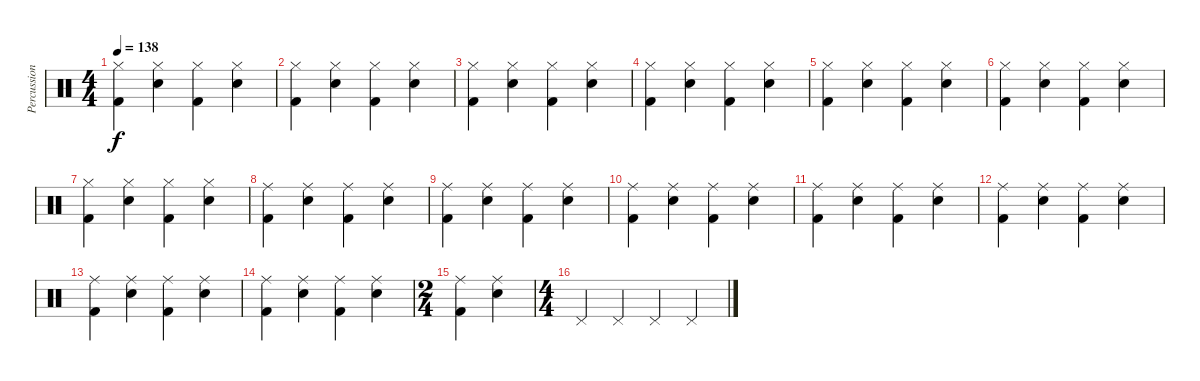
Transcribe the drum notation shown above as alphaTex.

\track ("Percussions Karim" "Percussion") {instrument percussion}
\staff {score}
\articulation defaults
\ts (4 4)
\tempo 138
\clef neutral
\ks c
("Hi-Hat (closed)" "Kick (hit) 2").4{dy f} ("Hi-Hat (closed)" "Electric Snare (hit)").4 ("Hi-Hat (closed)" "Kick (hit) 2").4 ("Hi-Hat (closed)" "Electric Snare (hit)").4 |
("Hi-Hat (closed)" "Kick (hit) 2").4 ("Hi-Hat (closed)" "Electric Snare (hit)").4 ("Hi-Hat (closed)" "Kick (hit) 2").4 ("Hi-Hat (closed)" "Electric Snare (hit)").4 |
("Hi-Hat (closed)" "Kick (hit) 2").4 ("Hi-Hat (closed)" "Electric Snare (hit)").4 ("Hi-Hat (closed)" "Kick (hit) 2").4 ("Hi-Hat (closed)" "Electric Snare (hit)").4 |
("Hi-Hat (closed)" "Kick (hit) 2").4 ("Hi-Hat (closed)" "Electric Snare (hit)").4 ("Hi-Hat (closed)" "Kick (hit) 2").4 ("Hi-Hat (closed)" "Electric Snare (hit)").4 |
("Hi-Hat (closed)" "Kick (hit) 2").4 ("Hi-Hat (closed)" "Electric Snare (hit)").4 ("Hi-Hat (closed)" "Kick (hit) 2").4 ("Hi-Hat (closed)" "Electric Snare (hit)").4 |
("Hi-Hat (closed)" "Kick (hit) 2").4 ("Hi-Hat (closed)" "Electric Snare (hit)").4 ("Hi-Hat (closed)" "Kick (hit) 2").4 ("Hi-Hat (closed)" "Electric Snare (hit)").4 |
("Hi-Hat (closed)" "Kick (hit) 2").4 ("Hi-Hat (closed)" "Electric Snare (hit)").4 ("Hi-Hat (closed)" "Kick (hit) 2").4 ("Hi-Hat (closed)" "Electric Snare (hit)").4 |
("Ride (middle)" "Kick (hit) 2").4 ("Ride (middle)" "Electric Snare (hit)").4 ("Ride (middle)" "Kick (hit) 2").4 ("Ride (middle)" "Electric Snare (hit)").4 |
("Ride (middle)" "Kick (hit) 2").4 ("Ride (middle)" "Electric Snare (hit)").4 ("Ride (middle)" "Kick (hit) 2").4 ("Ride (middle)" "Electric Snare (hit)").4 |
("Ride (middle)" "Kick (hit) 2").4 ("Ride (middle)" "Electric Snare (hit)").4 ("Ride (middle)" "Kick (hit) 2").4 ("Ride (middle)" "Electric Snare (hit)").4 |
("Ride (middle)" "Kick (hit) 2").4 ("Ride (middle)" "Electric Snare (hit)").4 ("Ride (middle)" "Kick (hit) 2").4 ("Ride (middle)" "Electric Snare (hit)").4 |
("Ride (middle)" "Kick (hit) 2").4 ("Ride (middle)" "Electric Snare (hit)").4 ("Ride (middle)" "Kick (hit) 2").4 ("Ride (middle)" "Electric Snare (hit)").4 |
("Ride (middle)" "Kick (hit) 2").4 ("Ride (middle)" "Electric Snare (hit)").4 ("Ride (middle)" "Kick (hit) 2").4 ("Ride (middle)" "Electric Snare (hit)").4 |
("Ride (middle)" "Kick (hit) 2").4 ("Ride (middle)" "Electric Snare (hit)").4 ("Ride (middle)" "Kick (hit) 2").4 ("Ride (middle)" "Electric Snare (hit)").4 |
\ts (2 4)
("Ride (middle)" "Kick (hit) 2").4 ("Ride (middle)" "Electric Snare (hit)").4 |
\ts (4 4)
"Pedal Hi-Hat (hit)".4 "Pedal Hi-Hat (hit)".4 "Pedal Hi-Hat (hit)".4 "Pedal Hi-Hat (hit)".4
